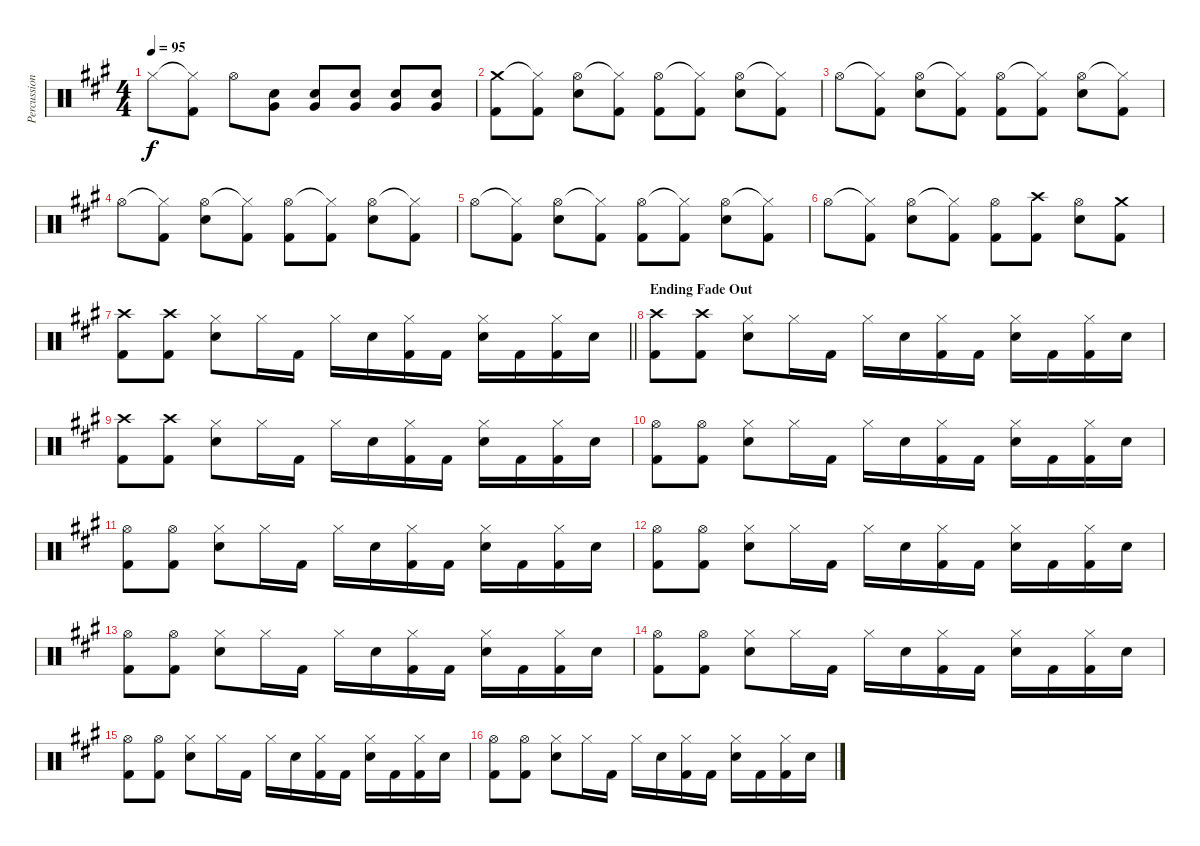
\track ("Percussion" "Percussion") {instrument percussion}
\staff {score}
\articulation defaults
\ts (4 4)
\tempo 95
\clef neutral
\ks a "Hi-Hat (closed)".8{dy f}
("Hi-Hat (closed)"{t} "Kick (hit) 2").8 "Hi-Hat (open)".8 ("Electric Snare (hit)" "Very Low Tom (hit)").8 ("Electric Snare (hit)" "Very Low Tom (hit)").8 ("Electric Snare (hit)" "Very Low Tom (hit)").8 ("Electric Snare (hit)" "Very Low Tom (hit)").8 ("Electric Snare (hit)" "Very Low Tom (hit)").8 |
("Crash medium (hit)" "Kick (hit) 2").8 ("Hi-Hat (closed)"{t} "Kick (hit) 2").8 ("Hi-Hat (open)" "Electric Snare (hit)").8 ("Hi-Hat (closed)"{t} "Kick (hit) 2").8 ("Hi-Hat (open)" "Kick (hit) 2").8 ("Hi-Hat (closed)"{t} "Kick (hit) 2").8 ("Hi-Hat (open)" "Electric Snare (hit)").8 ("Hi-Hat (closed)"{t} "Kick (hit) 2").8 |
"Hi-Hat (open)".8 ("Hi-Hat (closed)"{t} "Kick (hit) 2").8 ("Hi-Hat (open)" "Electric Snare (hit)").8 ("Hi-Hat (closed)"{t} "Kick (hit) 2").8 ("Hi-Hat (open)" "Kick (hit) 2").8 ("Hi-Hat (closed)"{t} "Kick (hit) 2").8 ("Hi-Hat (open)" "Electric Snare (hit)").8 ("Hi-Hat (closed)"{t} "Kick (hit) 2").8 |
"Hi-Hat (open)".8 ("Hi-Hat (closed)"{t} "Kick (hit) 2").8 ("Hi-Hat (open)" "Electric Snare (hit)").8 ("Hi-Hat (closed)"{t} "Kick (hit) 2").8 ("Hi-Hat (open)" "Kick (hit) 2").8 ("Hi-Hat (closed)"{t} "Kick (hit) 2").8 ("Hi-Hat (open)" "Electric Snare (hit)").8 ("Hi-Hat (closed)"{t} "Kick (hit) 2").8 |
"Hi-Hat (open)".8 ("Hi-Hat (closed)"{t} "Kick (hit) 2").8 ("Hi-Hat (open)" "Electric Snare (hit)").8 ("Hi-Hat (closed)"{t} "Kick (hit) 2").8 ("Hi-Hat (open)" "Kick (hit) 2").8 ("Hi-Hat (closed)"{t} "Kick (hit) 2").8 ("Hi-Hat (open)" "Electric Snare (hit)").8 ("Hi-Hat (closed)"{t} "Kick (hit) 2").8 |
"Hi-Hat (open)".8 ("Hi-Hat (closed)"{t} "Kick (hit) 2").8 ("Hi-Hat (open)" "Electric Snare (hit)").8 ("Hi-Hat (closed)"{t} "Kick (hit) 2").8 ("Hi-Hat (open)" "Kick (hit) 2").8 ("Crash high (hit)" "Kick (hit) 2").8 ("Hi-Hat (open)" "Electric Snare (hit)").8 ("Crash medium (hit)" "Kick (hit) 2").8 |
\barLineRight lightlight
("Crash high (hit)" "Kick (hit) 2").8 ("Crash high (hit)" "Kick (hit) 2").8 ("Hi-Hat (closed)" "Electric Snare (hit)").8 "Hi-Hat (closed)".16 "Kick (hit) 2".16 "Hi-Hat (closed)".16 "Electric Snare (hit)".16 ("Hi-Hat (closed)" "Kick (hit) 2").16 "Kick (hit) 2".16 ("Hi-Hat (closed)" "Electric Snare (hit)").16 "Kick (hit) 2".16 ("Hi-Hat (closed)" "Kick (hit) 2").16 "Electric Snare (hit)".16 |
\section ("" "Ending Fade Out")
("Crash high (hit)" "Kick (hit) 2").8 ("Crash high (hit)" "Kick (hit) 2").8 ("Hi-Hat (closed)" "Electric Snare (hit)").8 "Hi-Hat (closed)".16 "Kick (hit) 2".16 "Hi-Hat (closed)".16 "Electric Snare (hit)".16 ("Hi-Hat (closed)" "Kick (hit) 2").16 "Kick (hit) 2".16 ("Hi-Hat (closed)" "Electric Snare (hit)").16 "Kick (hit) 2".16 ("Hi-Hat (closed)" "Kick (hit) 2").16 "Electric Snare (hit)".16 |
("Crash high (hit)" "Kick (hit) 2").8 ("Crash high (hit)" "Kick (hit) 2").8 ("Hi-Hat (closed)" "Electric Snare (hit)").8 "Hi-Hat (closed)".16 "Kick (hit) 2".16 "Hi-Hat (closed)".16 "Electric Snare (hit)".16 ("Hi-Hat (closed)" "Kick (hit) 2").16 "Kick (hit) 2".16 ("Hi-Hat (closed)" "Electric Snare (hit)").16 "Kick (hit) 2".16 ("Hi-Hat (closed)" "Kick (hit) 2").16 "Electric Snare (hit)".16 |
("Hi-Hat (open)" "Kick (hit) 2").8 ("Hi-Hat (open)" "Kick (hit) 2").8 ("Hi-Hat (closed)" "Electric Snare (hit)").8 "Hi-Hat (closed)".16 "Kick (hit) 2".16 "Hi-Hat (closed)".16 "Electric Snare (hit)".16 ("Hi-Hat (closed)" "Kick (hit) 2").16 "Kick (hit) 2".16 ("Hi-Hat (closed)" "Electric Snare (hit)").16 "Kick (hit) 2".16 ("Hi-Hat (closed)" "Kick (hit) 2").16 "Electric Snare (hit)".16 |
("Hi-Hat (open)" "Kick (hit) 2").8 ("Hi-Hat (open)" "Kick (hit) 2").8 ("Hi-Hat (closed)" "Electric Snare (hit)").8 "Hi-Hat (closed)".16 "Kick (hit) 2".16 "Hi-Hat (closed)".16 "Electric Snare (hit)".16 ("Hi-Hat (closed)" "Kick (hit) 2").16 "Kick (hit) 2".16 ("Hi-Hat (closed)" "Electric Snare (hit)").16 "Kick (hit) 2".16 ("Hi-Hat (closed)" "Kick (hit) 2").16 "Electric Snare (hit)".16 |
("Hi-Hat (open)" "Kick (hit) 2").8 ("Hi-Hat (open)" "Kick (hit) 2").8 ("Hi-Hat (closed)" "Electric Snare (hit)").8 "Hi-Hat (closed)".16 "Kick (hit) 2".16 "Hi-Hat (closed)".16 "Electric Snare (hit)".16 ("Hi-Hat (closed)" "Kick (hit) 2").16 "Kick (hit) 2".16 ("Hi-Hat (closed)" "Electric Snare (hit)").16 "Kick (hit) 2".16 ("Hi-Hat (closed)" "Kick (hit) 2").16 "Electric Snare (hit)".16 |
("Hi-Hat (open)" "Kick (hit) 2").8 ("Hi-Hat (open)" "Kick (hit) 2").8 ("Hi-Hat (closed)" "Electric Snare (hit)").8 "Hi-Hat (closed)".16 "Kick (hit) 2".16 "Hi-Hat (closed)".16 "Electric Snare (hit)".16 ("Hi-Hat (closed)" "Kick (hit) 2").16 "Kick (hit) 2".16 ("Hi-Hat (closed)" "Electric Snare (hit)").16 "Kick (hit) 2".16 ("Hi-Hat (closed)" "Kick (hit) 2").16 "Electric Snare (hit)".16 |
("Hi-Hat (open)" "Kick (hit) 2").8 ("Hi-Hat (open)" "Kick (hit) 2").8 ("Hi-Hat (closed)" "Electric Snare (hit)").8 "Hi-Hat (closed)".16 "Kick (hit) 2".16 "Hi-Hat (closed)".16 "Electric Snare (hit)".16 ("Hi-Hat (closed)" "Kick (hit) 2").16 "Kick (hit) 2".16 ("Hi-Hat (closed)" "Electric Snare (hit)").16 "Kick (hit) 2".16 ("Hi-Hat (closed)" "Kick (hit) 2").16 "Electric Snare (hit)".16 |
("Hi-Hat (open)" "Kick (hit) 2").8 ("Hi-Hat (open)" "Kick (hit) 2").8 ("Hi-Hat (closed)" "Electric Snare (hit)").8 "Hi-Hat (closed)".16 "Kick (hit) 2".16 "Hi-Hat (closed)".16 "Electric Snare (hit)".16 ("Hi-Hat (closed)" "Kick (hit) 2").16 "Kick (hit) 2".16 ("Hi-Hat (closed)" "Electric Snare (hit)").16 "Kick (hit) 2".16 ("Hi-Hat (closed)" "Kick (hit) 2").16 "Electric Snare (hit)".16 |
("Hi-Hat (open)" "Kick (hit) 2").8 ("Hi-Hat (open)" "Kick (hit) 2").8 ("Hi-Hat (closed)" "Electric Snare (hit)").8 "Hi-Hat (closed)".16 "Kick (hit) 2".16 "Hi-Hat (closed)".16 "Electric Snare (hit)".16 ("Hi-Hat (closed)" "Kick (hit) 2").16 "Kick (hit) 2".16 ("Hi-Hat (closed)" "Electric Snare (hit)").16 "Kick (hit) 2".16 ("Hi-Hat (closed)" "Kick (hit) 2").16 "Electric Snare (hit)".16
